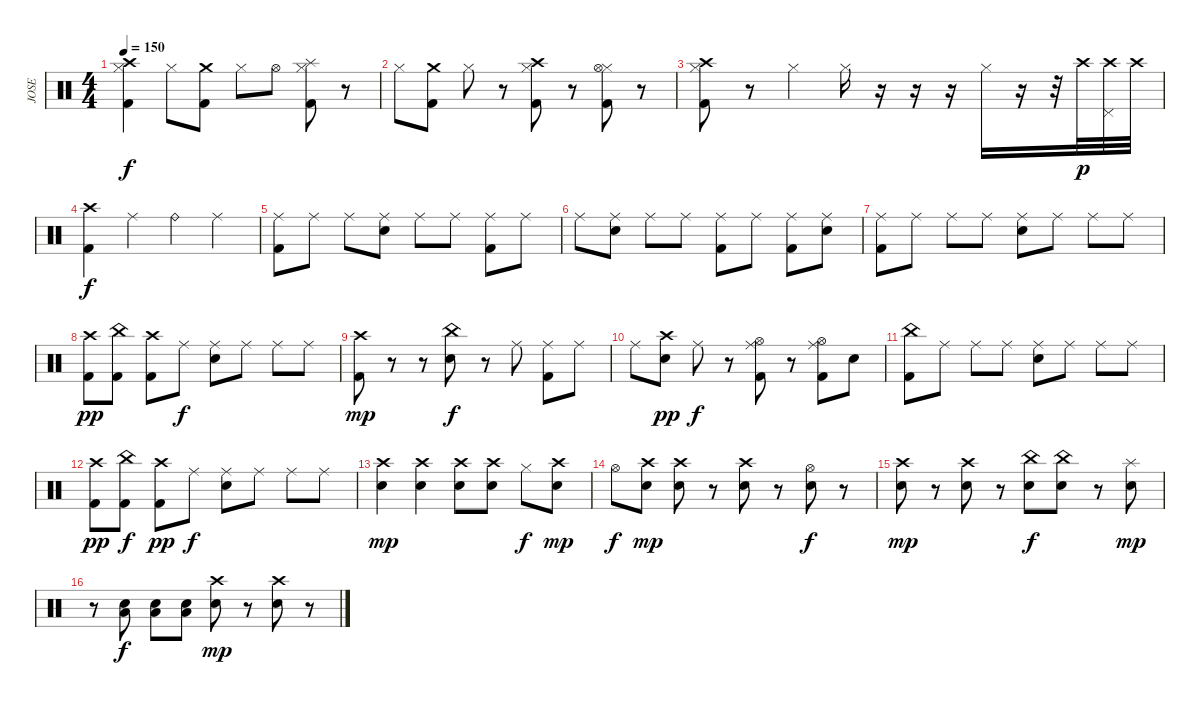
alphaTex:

\track ("JOSE" "JOSE") {instrument percussion}
\staff {score}
\articulation defaults
\ts (4 4)
\tempo 150
\clef neutral
\ks c
("Crash high (hit)" "Hi-Hat (closed)" "Kick (hit) 2").4{dy f} "Hi-Hat (closed)".8 ("Crash medium (hit)" "Kick (hit) 2").8 "Hi-Hat (closed)".8 "Hi-Hat (open)".8 ("Hi-Hat (closed)" "Splash (hit)" "Kick (hit) 2").8 r.8 |
"Hi-Hat (closed)".8 ("Crash medium (hit)" "Kick (hit) 2").8 "Hi-Hat (closed)".8 r.8 ("Hi-Hat (closed)" "Crash high (hit)" "Kick (hit) 2").8 r.8 ("Hi-Hat (closed)" "Hi-Hat (open)" "Kick (hit) 2").8 r.8 |
("Hi-Hat (closed)" "Crash high (hit)" "Kick (hit) 2").8 r.8 "Hi-Hat (closed)".4 "Hi-Hat (closed)".16 r.16 r.16 r.16 "Hi-Hat (closed)".16 r.16 r.32 "Crash high (hit)".32{dy p} ("Crash high (hit)" "Pedal Hi-Hat (hit)").32 "Crash high (hit)".32 |
("Crash high (hit)" "Kick (hit) 2").4{dy f} "Ride (middle)".4 "Ride (bell)".4 "Ride (middle)".4 |
("Ride (middle)" "Kick (hit) 2").8 "Ride (middle)".8 "Ride (middle)".8 ("Ride (middle)" "Electric Snare (hit)").8 "Ride (middle)".8 "Ride (middle)".8 ("Ride (middle)" "Kick (hit) 2").8 "Ride (middle)".8 |
"Ride (middle)".8 ("Ride (middle)" "Electric Snare (hit)").8 "Ride (middle)".8 "Ride (middle)".8 ("Ride (middle)" "Kick (hit) 2").8 "Ride (middle)".8 ("Ride (middle)" "Kick (hit) 2").8 ("Ride (middle)" "Electric Snare (hit)").8 |
("Ride (middle)" "Kick (hit) 2").8 "Ride (middle)".8 "Ride (middle)".8 "Ride (middle)".8 ("Ride (middle)" "Electric Snare (hit)").8 "Ride (middle)".8 "Ride (middle)".8 "Ride (middle)".8 |
("Crash high (hit)" "Kick (hit) 2").8{dy pp} ("China (hit)" "Kick (hit) 2").8 ("Crash high (hit)" "Kick (hit) 2").8 "Ride (middle)".8{dy f} ("Ride (middle)" "Electric Snare (hit)").8 "Ride (middle)".8 "Ride (middle)".8 "Ride (middle)".8 |
("Crash high (hit)" "Kick (hit) 2").8{dy mp} r.8 r.8 ("China (hit)" "Electric Snare (hit)").8{dy f} r.8 "Ride (middle)".8 ("Ride (middle)" "Kick (hit) 2").8 "Ride (middle)".8 |
"Ride (middle)".8 ("Crash high (hit)" "Electric Snare (hit)").8{dy pp} "Ride (middle)".8{dy f} r.8 ("Ride (middle)" "Hi-Hat (open)" "Kick (hit) 2").8 r.8 ("Ride (middle)" "Hi-Hat (open)" "Kick (hit) 2").8 "Electric Snare (hit)".8 |
("China (hit)" "Kick (hit) 2").8 "Ride (middle)".8 "Ride (middle)".8 "Ride (middle)".8 ("Ride (middle)" "Electric Snare (hit)").8 "Ride (middle)".8 "Ride (middle)".8 "Ride (middle)".8 |
("Crash high (hit)" "Kick (hit) 2").8{dy pp} ("China (hit)" "Kick (hit) 2").8{dy f} ("Crash high (hit)" "Kick (hit) 2").8{dy pp} "Ride (middle)".8{dy f} ("Ride (middle)" "Electric Snare (hit)").8 "Ride (middle)".8 "Ride (middle)".8 "Ride (middle)".8 |
("Crash high (hit)" "Electric Snare (hit)").4{dy mp} ("Crash high (hit)" "Electric Snare (hit)").4 ("Crash high (hit)" "Electric Snare (hit)").8 ("Crash high (hit)" "Electric Snare (hit)").8 "Hi-Hat (closed)".8{dy f} ("Crash high (hit)" "Electric Snare (hit)").8{dy mp} |
"Hi-Hat (open)".8{dy f} ("Crash high (hit)" "Electric Snare (hit)").8{dy mp} ("Crash high (hit)" "Electric Snare (hit)").8 r.8 ("Crash high (hit)" "Electric Snare (hit)").8 r.8 ("Hi-Hat (open)" "Electric Snare (hit)").8{dy f} r.8 |
("Crash high (hit)" "Electric Snare (hit)").8{dy mp} r.8 ("Crash high (hit)" "Electric Snare (hit)").8 r.8 ("China (hit)" "Electric Snare (hit)").8{dy f} ("China (hit)" "Electric Snare (hit)").8 r.8 ("Splash (hit)" "Electric Snare (hit)").8{dy mp} |
r.8 ("Electric Snare (hit)" "Low Floor Tom (hit)").8{dy f} ("Electric Snare (hit)" "Low Floor Tom (hit)").8 ("Electric Snare (hit)" "Low Floor Tom (hit)").8 ("Crash high (hit)" "Electric Snare (hit)").8{dy mp} r.8 ("Crash high (hit)" "Electric Snare (hit)").8 r.8
